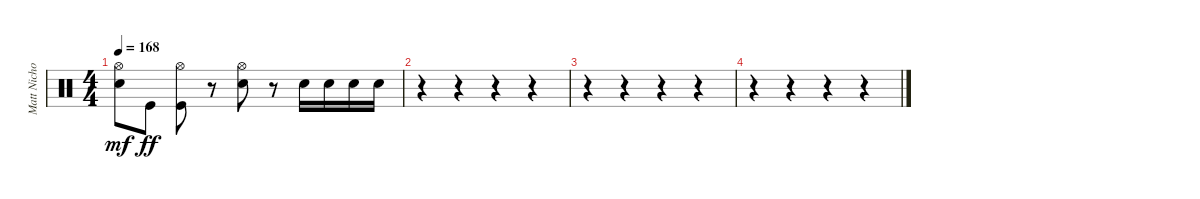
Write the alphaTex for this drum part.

\track ("Matt Nicholls" "Matt Nicho") {instrument percussion}
\staff {score}
\articulation defaults
\ts (4 4)
\tempo 168
\clef neutral
\ks c
("Hi-Hat (open)" "Snare (hit) 2").8{dy mf} "Kick (hit)".8{dy ff} ("Kick (hit)" "Hi-Hat (open)").8 r.8 ("Hi-Hat (open)" "Snare (hit) 2").8 r.8 "Snare (hit) 2".16 "Snare (hit) 2".16 "Snare (hit) 2".16 "Snare (hit) 2".16 |
r.4 r.4 r.4 r.4 |
r.4 r.4 r.4 r.4 |
r.4 r.4 r.4 r.4
